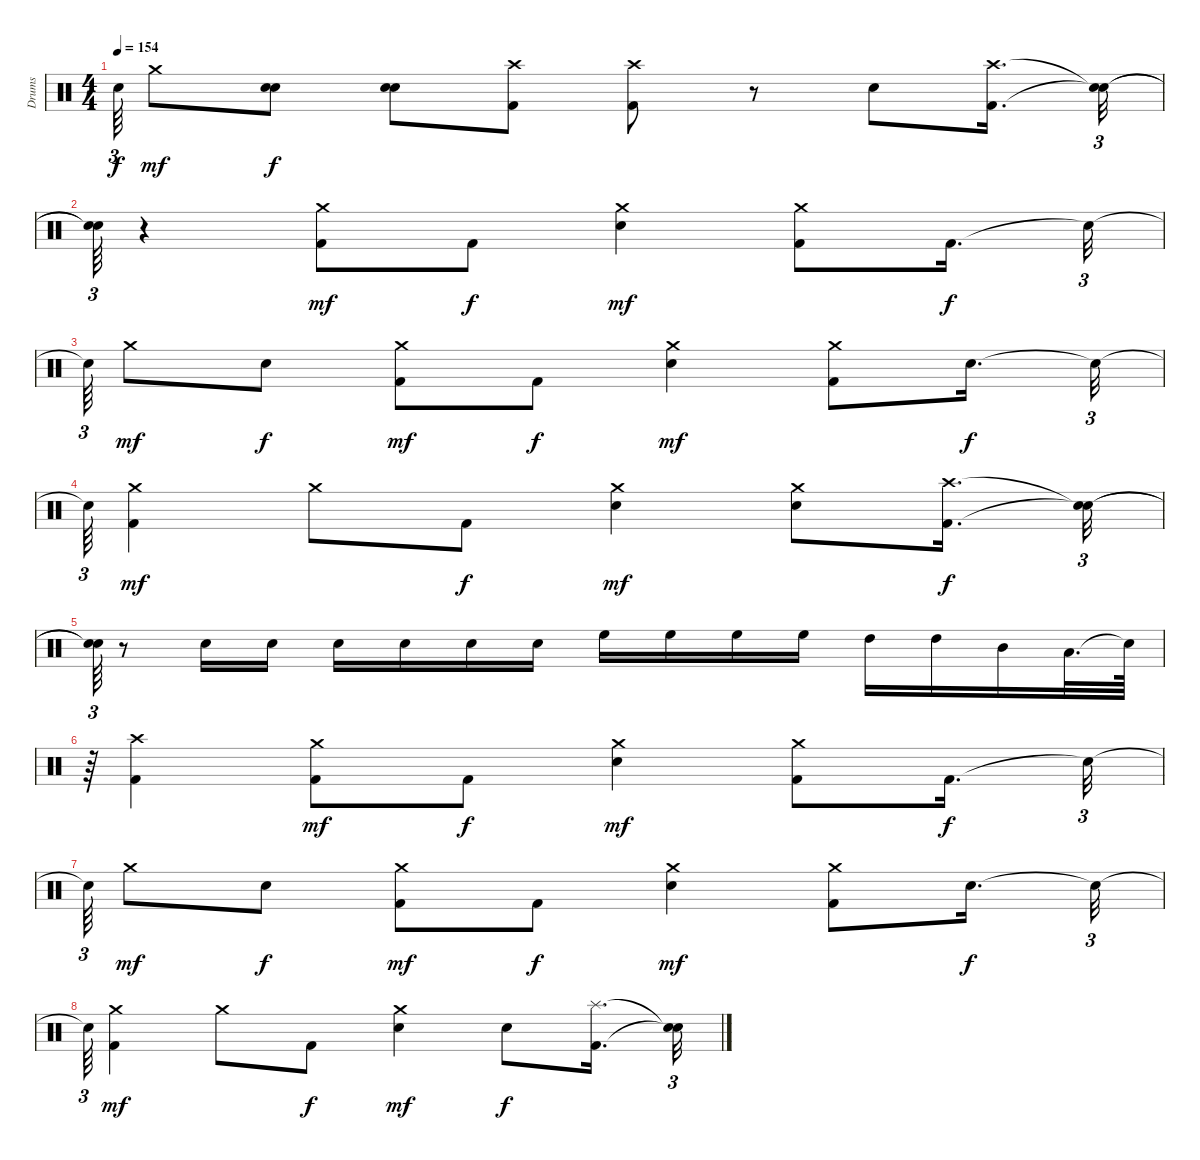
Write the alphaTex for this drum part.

\track ("Drums" "Drums") {instrument percussion}
\staff {score}
\articulation defaults
\ts (4 4)
\tempo 154
\clef neutral
\ks c "Snare (hit)"{t}.64{tu (3 2) dy f} "Crash medium (hit)".8{dy mf}
("Electric Snare (hit)" "Electric Snare (hit)").8{dy f} ("Electric Snare (hit)" "Electric Snare (hit)").8 ("Kick (hit) 2" "Crash high (hit)").8 ("Kick (hit) 2" "Crash high (hit)").8 r.8 "Electric Snare (hit)".8 ("Crash high (hit)" "Kick (hit) 2").16{d} ("Snare (hit)"{t} "Snare (hit)"{t}).32{tu (3 2)} |
("Snare (hit)"{t} "Snare (hit)"{t}).64{tu (3 2)} r.4 ("Kick (hit) 2" "Crash medium (hit)").8{dy mf} "Kick (hit) 2".8{dy f} ("Electric Snare (hit)" "Crash medium (hit)").4{dy mf} ("Kick (hit) 2" "Crash medium (hit)").8 "Kick (hit) 2".16{d dy f} "Snare (hit)"{t}.32{tu (3 2)} |
"Snare (hit)"{t}.64{tu (3 2)} "Crash medium (hit)".8{dy mf} "Electric Snare (hit)".8{dy f} ("Kick (hit) 2" "Crash medium (hit)").8{dy mf} "Kick (hit) 2".8{dy f} ("Electric Snare (hit)" "Crash medium (hit)").4{dy mf} ("Kick (hit) 2" "Crash medium (hit)").8 "Electric Snare (hit)".16{d dy f} "Snare (hit)"{t}.32{tu (3 2)} |
"Snare (hit)"{t}.64{tu (3 2)} ("Kick (hit) 2" "Crash medium (hit)").4{dy mf} "Crash medium (hit)".8 "Kick (hit) 2".8{dy f} ("Electric Snare (hit)" "Crash medium (hit)").4{dy mf} ("Electric Snare (hit)" "Crash medium (hit)").8 ("Kick (hit) 2" "Crash high (hit)").16{d dy f} ("Snare (hit)"{t} "Snare (hit)"{t}).32{tu (3 2)} |
("Snare (hit)"{t} "Snare (hit)"{t}).64{tu (3 2)} r.8 "Electric Snare (hit)".16 "Electric Snare (hit)".16 "Electric Snare (hit)".16 "Electric Snare (hit)".16 "Electric Snare (hit)".16 "Electric Snare (hit)".16 "High Floor Tom (hit)".16 "High Floor Tom (hit)".16 "High Floor Tom (hit)".16 "High Floor Tom (hit)".16 "High Tom (hit)".16 "High Tom (hit)".16 "Mid Tom (hit)".16 "Low Tom (hit)".32{d} "Snare (hit)"{t}.64 |
r.64{tu (3 2)} ("Crash high (hit)" "Kick (hit) 2").4 ("Kick (hit) 2" "Crash medium (hit)").8{dy mf} "Kick (hit) 2".8{dy f} ("Electric Snare (hit)" "Crash medium (hit)").4{dy mf} ("Kick (hit) 2" "Crash medium (hit)").8 "Kick (hit) 2".16{d dy f} "Snare (hit)"{t}.32{tu (3 2)} |
"Snare (hit)"{t}.64{tu (3 2)} "Crash medium (hit)".8{dy mf} "Electric Snare (hit)".8{dy f} ("Kick (hit) 2" "Crash medium (hit)").8{dy mf} "Kick (hit) 2".8{dy f} ("Electric Snare (hit)" "Crash medium (hit)").4{dy mf} ("Kick (hit) 2" "Crash medium (hit)").8 "Electric Snare (hit)".16{d dy f} "Snare (hit)"{t}.32{tu (3 2)} |
"Snare (hit)"{t}.64{tu (3 2)} ("Kick (hit) 2" "Crash medium (hit)").4{dy mf} "Crash medium (hit)".8 "Kick (hit) 2".8{dy f} ("Electric Snare (hit)" "Crash medium (hit)").4{dy mf} "Electric Snare (hit)".8{dy f} ("Kick (hit) 2" "Splash (hit)").16{d} ("Snare (hit)"{t} "Snare (hit)"{t}).32{tu (3 2)}
